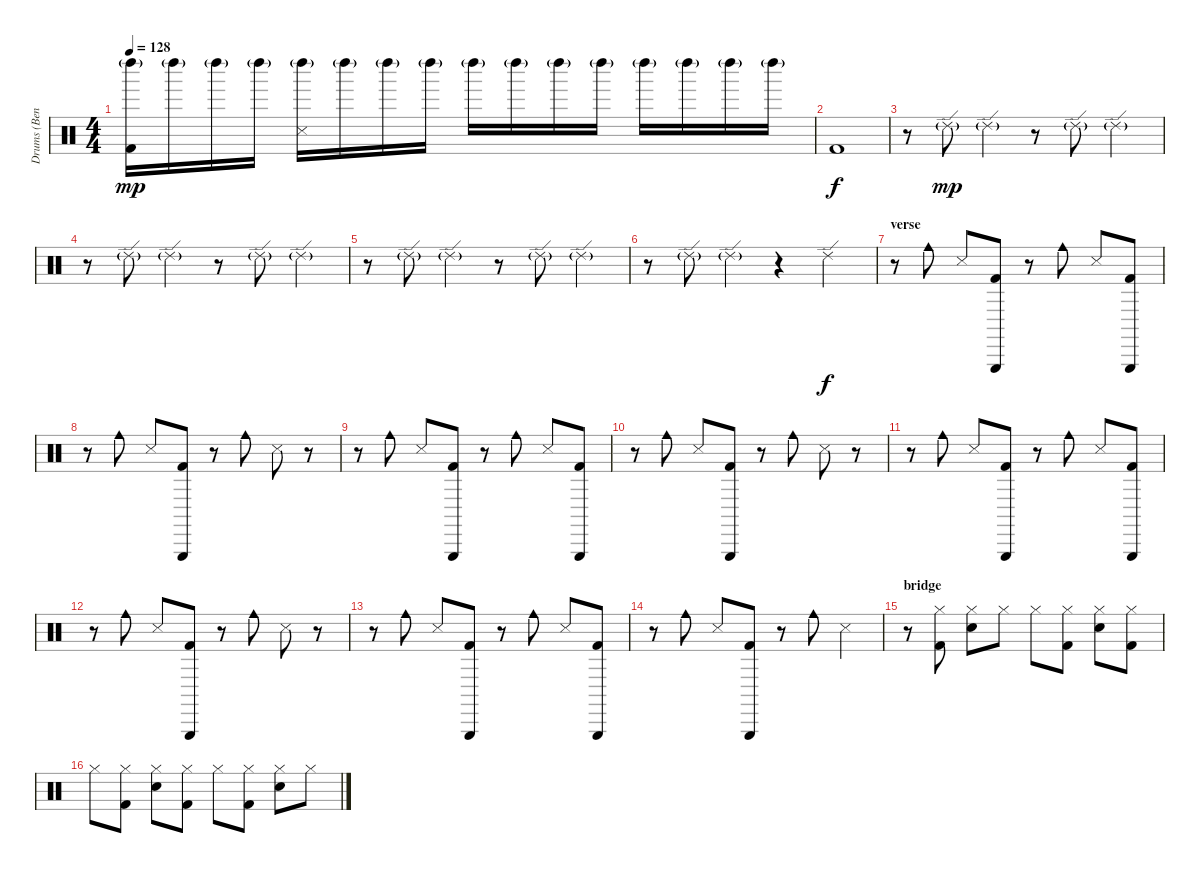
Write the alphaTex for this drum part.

\track ("Drums (Bengerg)" "Drums (Ben") {instrument percussion}
\staff {score}
\articulation defaults
\ts (4 4)
\tempo 128
\clef neutral
\ks c
("Left Maraca (hit)"{g} "Kick (hit) 2").16{dy mp} "Left Maraca (hit)"{g}.16 "Left Maraca (hit)"{g}.16 "Left Maraca (hit)"{g}.16 ("Left Maraca (hit)"{g} "Snare (side stick) 3").16 "Left Maraca (hit)"{g}.16 "Left Maraca (hit)"{g}.16 "Left Maraca (hit)"{g}.16 "Left Maraca (hit)"{g}.16 "Left Maraca (hit)"{g}.16 "Left Maraca (hit)"{g}.16 "Left Maraca (hit)"{g}.16 "Left Maraca (hit)"{g}.16 "Left Maraca (hit)"{g}.16 "Left Maraca (hit)"{g}.16 "Left Maraca (hit)"{g}.16 |
"Kick (hit) 2".1{dy f} |
r.8 "Ride (edge) 2"{g}.8{dy mp} "Ride (edge) 2"{g}.4 r.8 "Ride (edge) 2"{g}.8 "Ride (edge) 2"{g}.4 |
r.8 "Ride (edge) 2"{g}.8 "Ride (edge) 2"{g}.4 r.8 "Ride (edge) 2"{g}.8 "Ride (edge) 2"{g}.4 |
r.8 "Ride (edge) 2"{g}.8 "Ride (edge) 2"{g}.4 r.8 "Ride (edge) 2"{g}.8 "Ride (edge) 2"{g}.4 |
r.8 "Ride (edge) 2"{g}.8 "Ride (edge) 2"{g}.4 r.4 "Ride (edge) 2".4{dy f} |
\section ("" "verse")
r.8 "Cowbell medium (hit)".8 "Snare (side stick) 3".8 ("Triangle (hit)" "Kick (hit) 2").8 r.8 "Cowbell medium (hit)".8 "Snare (side stick) 3".8 ("Triangle (hit)" "Kick (hit) 2").8 |
r.8 "Cowbell medium (hit)".8 "Snare (side stick) 3".8 ("Triangle (hit)" "Kick (hit) 2").8 r.8 "Cowbell medium (hit)".8 "Snare (side stick) 3".8 r.8 |
r.8 "Cowbell medium (hit)".8 "Snare (side stick) 3".8 ("Triangle (hit)" "Kick (hit) 2").8 r.8 "Cowbell medium (hit)".8 "Snare (side stick) 3".8 ("Triangle (hit)" "Kick (hit) 2").8 |
r.8 "Cowbell medium (hit)".8 "Snare (side stick) 3".8 ("Triangle (hit)" "Kick (hit) 2").8 r.8 "Cowbell medium (hit)".8 "Snare (side stick) 3".8 r.8 |
r.8 "Cowbell medium (hit)".8 "Snare (side stick) 3".8 ("Triangle (hit)" "Kick (hit) 2").8 r.8 "Cowbell medium (hit)".8 "Snare (side stick) 3".8 ("Triangle (hit)" "Kick (hit) 2").8 |
r.8 "Cowbell medium (hit)".8 "Snare (side stick) 3".8 ("Triangle (hit)" "Kick (hit) 2").8 r.8 "Cowbell medium (hit)".8 "Snare (side stick) 3".8 r.8 |
r.8 "Cowbell medium (hit)".8 "Snare (side stick) 3".8 ("Triangle (hit)" "Kick (hit) 2").8 r.8 "Cowbell medium (hit)".8 "Snare (side stick) 3".8 ("Triangle (hit)" "Kick (hit) 2").8 |
r.8 "Cowbell medium (hit)".8 "Snare (side stick) 3".8 ("Triangle (hit)" "Kick (hit) 2").8 r.8 "Cowbell medium (hit)".8 "Snare (side stick) 3".4 |
\section ("" "bridge")
r.8 ("Hi-Hat (closed)" "Kick (hit) 2").8 ("Hi-Hat (closed)" "Electric Snare (hit)").8 "Hi-Hat (closed)".8 "Hi-Hat (closed)".8 ("Hi-Hat (closed)" "Kick (hit) 2").8 ("Hi-Hat (closed)" "Electric Snare (hit)").8 ("Hi-Hat (closed)" "Kick (hit) 2").8 |
"Hi-Hat (closed)".8 ("Hi-Hat (closed)" "Kick (hit) 2").8 ("Hi-Hat (closed)" "Electric Snare (hit)").8 ("Hi-Hat (closed)" "Kick (hit) 2").8 "Hi-Hat (closed)".8 ("Hi-Hat (closed)" "Kick (hit) 2").8 ("Hi-Hat (closed)" "Electric Snare (hit)").8 "Hi-Hat (closed)".8
